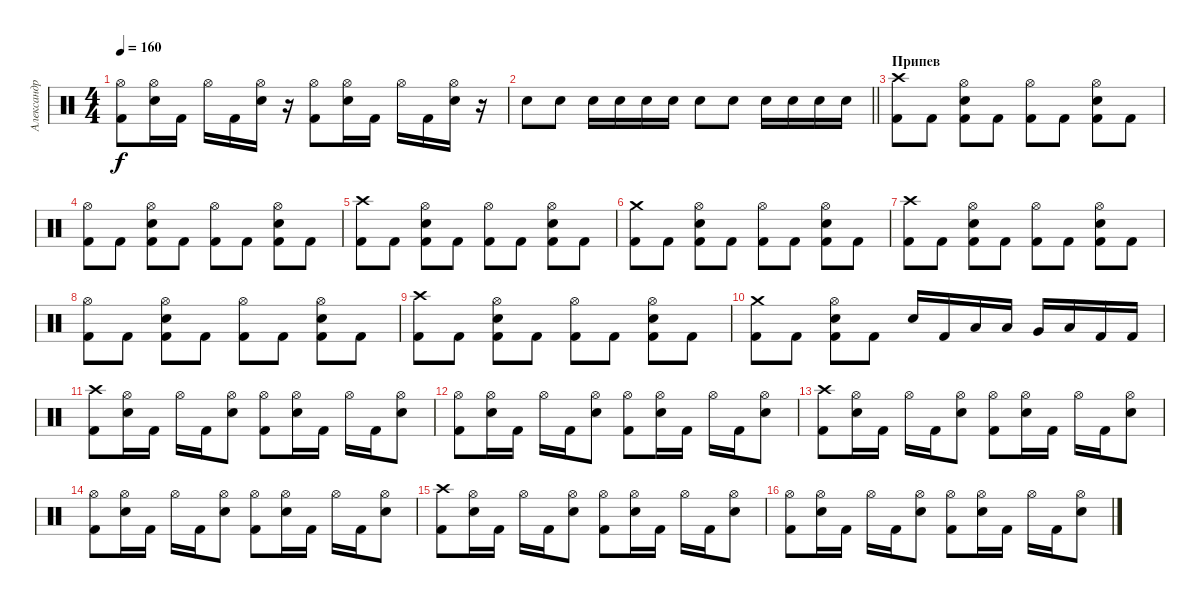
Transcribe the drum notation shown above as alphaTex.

\track ("Александр Карпухин" "Александр ") {instrument percussion}
\staff {score}
\articulation defaults
\ts (4 4)
\tempo 160
\clef neutral
\ks c
("Hi-Hat (open)" "Kick (hit) 2").8{dy f} ("Hi-Hat (open)" "Electric Snare (hit)").16 "Kick (hit) 2".16 "Hi-Hat (open)".16 "Kick (hit) 2".16 ("Hi-Hat (open)" "Electric Snare (hit)").16 r.16 ("Hi-Hat (open)" "Kick (hit) 2").8 ("Hi-Hat (open)" "Electric Snare (hit)").16 "Kick (hit) 2".16 "Hi-Hat (open)".16 "Kick (hit) 2".16 ("Hi-Hat (open)" "Electric Snare (hit)").16 r.16 |
\barLineRight lightlight "Electric Snare (hit)".8 "Electric Snare (hit)".8 "Electric Snare (hit)".16 "Electric Snare (hit)".16 "Electric Snare (hit)".16 "Electric Snare (hit)".16 "Electric Snare (hit)".8 "Electric Snare (hit)".8 "Electric Snare (hit)".16 "Electric Snare (hit)".16 "Electric Snare (hit)".16 "Electric Snare (hit)".16
|
\section ("" "Припев")
("Crash high (hit)" "Kick (hit) 2").8 "Kick (hit) 2".8 ("Hi-Hat (open)" "Electric Snare (hit)" "Kick (hit) 2").8 "Kick (hit) 2".8 ("Hi-Hat (open)" "Kick (hit) 2").8 "Kick (hit) 2".8 ("Hi-Hat (open)" "Electric Snare (hit)" "Kick (hit) 2").8 "Kick (hit) 2".8 |
("Hi-Hat (open)" "Kick (hit) 2").8 "Kick (hit) 2".8 ("Hi-Hat (open)" "Electric Snare (hit)" "Kick (hit) 2").8 "Kick (hit) 2".8 ("Hi-Hat (open)" "Kick (hit) 2").8 "Kick (hit) 2".8 ("Hi-Hat (open)" "Electric Snare (hit)" "Kick (hit) 2").8 "Kick (hit) 2".8 |
("Crash high (hit)" "Kick (hit) 2").8 "Kick (hit) 2".8 ("Hi-Hat (open)" "Electric Snare (hit)" "Kick (hit) 2").8 "Kick (hit) 2".8 ("Hi-Hat (open)" "Kick (hit) 2").8 "Kick (hit) 2".8 ("Hi-Hat (open)" "Electric Snare (hit)" "Kick (hit) 2").8 "Kick (hit) 2".8 |
("Crash medium (hit)" "Kick (hit) 2").8 "Kick (hit) 2".8 ("Hi-Hat (open)" "Electric Snare (hit)" "Kick (hit) 2").8 "Kick (hit) 2".8 ("Hi-Hat (open)" "Kick (hit) 2").8 "Kick (hit) 2".8 ("Hi-Hat (open)" "Electric Snare (hit)" "Kick (hit) 2").8 "Kick (hit) 2".8 |
("Crash high (hit)" "Kick (hit) 2").8 "Kick (hit) 2".8 ("Hi-Hat (open)" "Electric Snare (hit)" "Kick (hit) 2").8 "Kick (hit) 2".8 ("Hi-Hat (open)" "Kick (hit) 2").8 "Kick (hit) 2".8 ("Hi-Hat (open)" "Electric Snare (hit)" "Kick (hit) 2").8 "Kick (hit) 2".8 |
("Hi-Hat (open)" "Kick (hit) 2").8 "Kick (hit) 2".8 ("Hi-Hat (open)" "Electric Snare (hit)" "Kick (hit) 2").8 "Kick (hit) 2".8 ("Hi-Hat (open)" "Kick (hit) 2").8 "Kick (hit) 2".8 ("Hi-Hat (open)" "Electric Snare (hit)" "Kick (hit) 2").8 "Kick (hit) 2".8 |
("Crash high (hit)" "Kick (hit) 2").8 "Kick (hit) 2".8 ("Hi-Hat (open)" "Electric Snare (hit)" "Kick (hit) 2").8 "Kick (hit) 2".8 ("Hi-Hat (open)" "Kick (hit) 2").8 "Kick (hit) 2".8 ("Hi-Hat (open)" "Electric Snare (hit)" "Kick (hit) 2").8 "Kick (hit) 2".8 |
("Crash medium (hit)" "Kick (hit) 2").8 "Kick (hit) 2".8 ("Hi-Hat (open)" "Electric Snare (hit)" "Kick (hit) 2").8 "Kick (hit) 2".8 "Electric Snare (hit)".16 "Kick (hit) 2".16 "Low Tom (hit)".16 "Low Tom (hit)".16 "Very Low Tom (hit)".16 "Low Floor Tom (hit)".16 "Kick (hit) 2".16 "Kick (hit) 2".16 |
("Crash high (hit)" "Kick (hit) 2").8 ("Hi-Hat (open)" "Electric Snare (hit)").16 "Kick (hit) 2".16 "Hi-Hat (open)".16 "Kick (hit) 2".16 ("Hi-Hat (open)" "Electric Snare (hit)").8 ("Hi-Hat (open)" "Kick (hit) 2").8 ("Hi-Hat (open)" "Electric Snare (hit)").16 "Kick (hit) 2".16 "Hi-Hat (open)".16 "Kick (hit) 2".16 ("Hi-Hat (open)" "Electric Snare (hit)").8 |
("Hi-Hat (open)" "Kick (hit) 2").8 ("Hi-Hat (open)" "Electric Snare (hit)").16 "Kick (hit) 2".16 "Hi-Hat (open)".16 "Kick (hit) 2".16 ("Hi-Hat (open)" "Electric Snare (hit)").8 ("Hi-Hat (open)" "Kick (hit) 2").8 ("Hi-Hat (open)" "Electric Snare (hit)").16 "Kick (hit) 2".16 "Hi-Hat (open)".16 "Kick (hit) 2".16 ("Hi-Hat (open)" "Electric Snare (hit)").8 |
("Crash high (hit)" "Kick (hit) 2").8 ("Hi-Hat (open)" "Electric Snare (hit)").16 "Kick (hit) 2".16 "Hi-Hat (open)".16 "Kick (hit) 2".16 ("Hi-Hat (open)" "Electric Snare (hit)").8 ("Hi-Hat (open)" "Kick (hit) 2").8 ("Hi-Hat (open)" "Electric Snare (hit)").16 "Kick (hit) 2".16 "Hi-Hat (open)".16 "Kick (hit) 2".16 ("Hi-Hat (open)" "Electric Snare (hit)").8 |
("Hi-Hat (open)" "Kick (hit) 2").8 ("Hi-Hat (open)" "Electric Snare (hit)").16 "Kick (hit) 2".16 "Hi-Hat (open)".16 "Kick (hit) 2".16 ("Hi-Hat (open)" "Electric Snare (hit)").8 ("Hi-Hat (open)" "Kick (hit) 2").8 ("Hi-Hat (open)" "Electric Snare (hit)").16 "Kick (hit) 2".16 "Hi-Hat (open)".16 "Kick (hit) 2".16 ("Hi-Hat (open)" "Electric Snare (hit)").8 |
("Crash high (hit)" "Kick (hit) 2").8 ("Hi-Hat (open)" "Electric Snare (hit)").16 "Kick (hit) 2".16 "Hi-Hat (open)".16 "Kick (hit) 2".16 ("Hi-Hat (open)" "Electric Snare (hit)").8 ("Hi-Hat (open)" "Kick (hit) 2").8 ("Hi-Hat (open)" "Electric Snare (hit)").16 "Kick (hit) 2".16 "Hi-Hat (open)".16 "Kick (hit) 2".16 ("Hi-Hat (open)" "Electric Snare (hit)").8 |
("Hi-Hat (open)" "Kick (hit) 2").8 ("Hi-Hat (open)" "Electric Snare (hit)").16 "Kick (hit) 2".16 "Hi-Hat (open)".16 "Kick (hit) 2".16 ("Hi-Hat (open)" "Electric Snare (hit)").8 ("Hi-Hat (open)" "Kick (hit) 2").8 ("Hi-Hat (open)" "Electric Snare (hit)").16 "Kick (hit) 2".16 "Hi-Hat (open)".16 "Kick (hit) 2".16 ("Hi-Hat (open)" "Electric Snare (hit)").8
